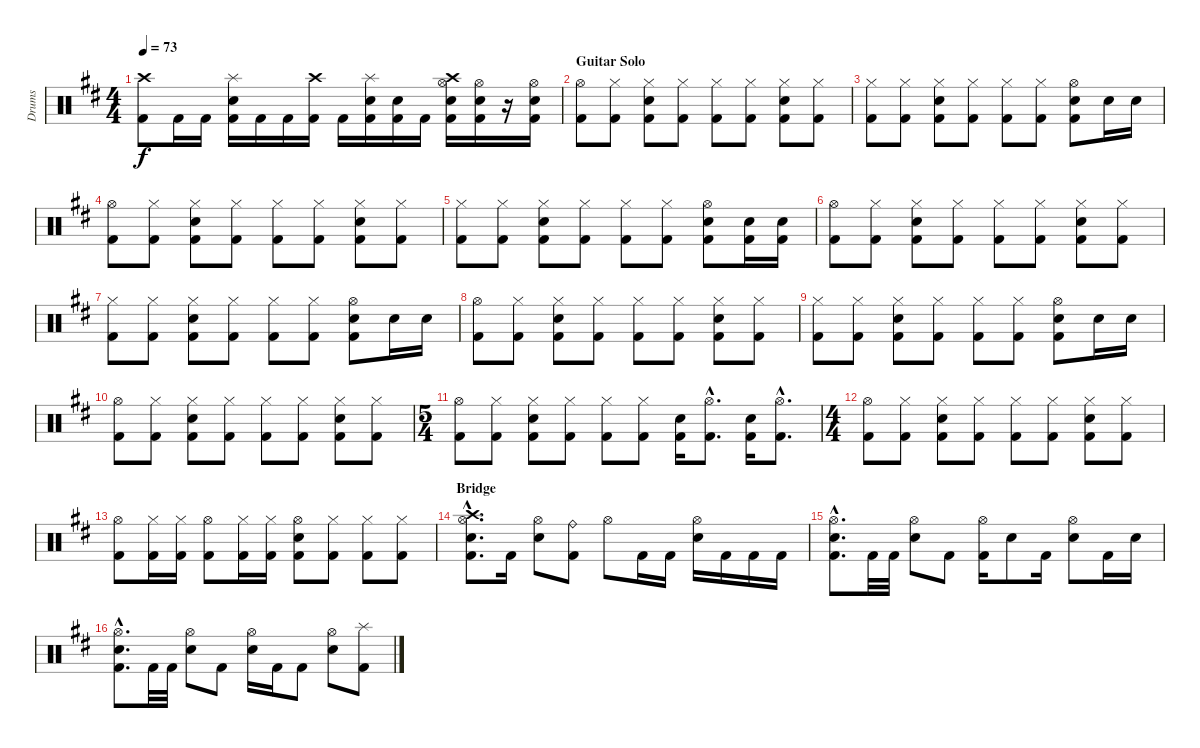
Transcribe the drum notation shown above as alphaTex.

\track ("Drums" "Drums") {instrument percussion}
\staff {score}
\articulation defaults
\ts (4 4)
\tempo 73
\clef neutral
\ks d
("Kick (hit) 2" "Crash high (hit)").8{dy f} "Kick (hit) 2".16 "Kick (hit) 2".16 ("Kick (hit) 2" "Electric Snare (hit)" "Splash (hit)").16 "Kick (hit) 2".16 "Kick (hit) 2".16 ("Kick (hit) 2" "Crash high (hit)").16 "Kick (hit) 2".16 ("Kick (hit) 2" "Electric Snare (hit)" "Splash (hit)").16 ("Kick (hit) 2" "Electric Snare (hit)").16 "Kick (hit) 2".16 ("Kick (hit) 2" "Electric Snare (hit)" "Hi-Hat (open)" "Crash high (hit)").16 ("Kick (hit) 2" "Electric Snare (hit)" "Hi-Hat (open)").16 r.16 ("Kick (hit) 2" "Electric Snare (hit)" "Hi-Hat (open)").16 |
\section ("" "Guitar Solo")
("Kick (hit) 2" "Hi-Hat (open)").8 ("Kick (hit) 2" "Hi-Hat (closed)").8 ("Kick (hit) 2" "Hi-Hat (closed)" "Electric Snare (hit)").8 ("Kick (hit) 2" "Hi-Hat (closed)").8 ("Kick (hit) 2" "Hi-Hat (closed)").8 ("Kick (hit) 2" "Hi-Hat (closed)").8 ("Kick (hit) 2" "Hi-Hat (closed)" "Electric Snare (hit)").8 ("Kick (hit) 2" "Hi-Hat (closed)").8 |
("Kick (hit) 2" "Hi-Hat (closed)").8 ("Kick (hit) 2" "Hi-Hat (closed)").8 ("Kick (hit) 2" "Hi-Hat (closed)" "Electric Snare (hit)").8 ("Kick (hit) 2" "Hi-Hat (closed)").8 ("Kick (hit) 2" "Hi-Hat (closed)").8 ("Kick (hit) 2" "Hi-Hat (closed)").8 ("Kick (hit) 2" "Hi-Hat (open)" "Electric Snare (hit)").8 "Electric Snare (hit)".16 "Electric Snare (hit)".16 |
("Kick (hit) 2" "Hi-Hat (open)").8 ("Kick (hit) 2" "Hi-Hat (closed)").8 ("Kick (hit) 2" "Hi-Hat (closed)" "Electric Snare (hit)").8 ("Kick (hit) 2" "Hi-Hat (closed)").8 ("Kick (hit) 2" "Hi-Hat (closed)").8 ("Kick (hit) 2" "Hi-Hat (closed)").8 ("Kick (hit) 2" "Hi-Hat (closed)" "Electric Snare (hit)").8 ("Kick (hit) 2" "Hi-Hat (closed)").8 |
("Kick (hit) 2" "Hi-Hat (closed)").8 ("Kick (hit) 2" "Hi-Hat (closed)").8 ("Kick (hit) 2" "Hi-Hat (closed)" "Electric Snare (hit)").8 ("Kick (hit) 2" "Hi-Hat (closed)").8 ("Kick (hit) 2" "Hi-Hat (closed)").8 ("Kick (hit) 2" "Hi-Hat (closed)").8 ("Kick (hit) 2" "Hi-Hat (open)" "Electric Snare (hit)").8 ("Kick (hit) 2" "Electric Snare (hit)").16 ("Kick (hit) 2" "Electric Snare (hit)").16 |
("Kick (hit) 2" "Hi-Hat (open)").8 ("Kick (hit) 2" "Hi-Hat (closed)").8 ("Kick (hit) 2" "Hi-Hat (closed)" "Electric Snare (hit)").8 ("Kick (hit) 2" "Hi-Hat (closed)").8 ("Kick (hit) 2" "Hi-Hat (closed)").8 ("Kick (hit) 2" "Hi-Hat (closed)").8 ("Kick (hit) 2" "Hi-Hat (closed)" "Electric Snare (hit)").8 ("Kick (hit) 2" "Hi-Hat (closed)").8 |
("Kick (hit) 2" "Hi-Hat (closed)").8 ("Kick (hit) 2" "Hi-Hat (closed)").8 ("Kick (hit) 2" "Hi-Hat (closed)" "Electric Snare (hit)").8 ("Kick (hit) 2" "Hi-Hat (closed)").8 ("Kick (hit) 2" "Hi-Hat (closed)").8 ("Kick (hit) 2" "Hi-Hat (closed)").8 ("Kick (hit) 2" "Hi-Hat (open)" "Electric Snare (hit)").8 "Electric Snare (hit)".16 "Electric Snare (hit)".16 |
("Kick (hit) 2" "Hi-Hat (open)").8 ("Kick (hit) 2" "Hi-Hat (closed)").8 ("Kick (hit) 2" "Hi-Hat (closed)" "Electric Snare (hit)").8 ("Kick (hit) 2" "Hi-Hat (closed)").8 ("Kick (hit) 2" "Hi-Hat (closed)").8 ("Kick (hit) 2" "Hi-Hat (closed)").8 ("Kick (hit) 2" "Hi-Hat (closed)" "Electric Snare (hit)").8 ("Kick (hit) 2" "Hi-Hat (closed)").8 |
("Kick (hit) 2" "Hi-Hat (closed)").8 ("Kick (hit) 2" "Hi-Hat (closed)").8 ("Kick (hit) 2" "Hi-Hat (closed)" "Electric Snare (hit)").8 ("Kick (hit) 2" "Hi-Hat (closed)").8 ("Kick (hit) 2" "Hi-Hat (closed)").8 ("Kick (hit) 2" "Hi-Hat (closed)").8 ("Kick (hit) 2" "Hi-Hat (open)" "Electric Snare (hit)").8 "Electric Snare (hit)".16 "Electric Snare (hit)".16 |
("Kick (hit) 2" "Hi-Hat (open)").8 ("Kick (hit) 2" "Hi-Hat (closed)").8 ("Kick (hit) 2" "Hi-Hat (closed)" "Electric Snare (hit)").8 ("Kick (hit) 2" "Hi-Hat (closed)").8 ("Kick (hit) 2" "Hi-Hat (closed)").8 ("Kick (hit) 2" "Hi-Hat (closed)").8 ("Kick (hit) 2" "Hi-Hat (closed)" "Electric Snare (hit)").8 ("Kick (hit) 2" "Hi-Hat (closed)").8 |
\ts (5 4)
("Kick (hit) 2" "Hi-Hat (open)").8 ("Kick (hit) 2" "Hi-Hat (closed)").8 ("Kick (hit) 2" "Hi-Hat (closed)" "Electric Snare (hit)").8 ("Kick (hit) 2" "Hi-Hat (closed)").8 ("Kick (hit) 2" "Hi-Hat (closed)").8 ("Kick (hit) 2" "Hi-Hat (closed)").8 ("Kick (hit) 2" "Electric Snare (hit)").16 ("Kick (hit) 2"{hac} "Hi-Hat (open)"{hac}).8{d} ("Kick (hit) 2" "Electric Snare (hit)").16 ("Kick (hit) 2"{hac} "Hi-Hat (open)"{hac}).8{d} |
\ts (4 4)
("Kick (hit) 2" "Hi-Hat (open)").8 ("Kick (hit) 2" "Hi-Hat (closed)").8 ("Kick (hit) 2" "Hi-Hat (closed)" "Electric Snare (hit)").8 ("Kick (hit) 2" "Hi-Hat (closed)").8 ("Kick (hit) 2" "Hi-Hat (closed)").8 ("Kick (hit) 2" "Hi-Hat (closed)").8 ("Kick (hit) 2" "Hi-Hat (closed)" "Electric Snare (hit)").8 ("Kick (hit) 2" "Hi-Hat (closed)").8 |
("Kick (hit) 2" "Hi-Hat (open)").8 ("Kick (hit) 2" "Hi-Hat (closed)").16 ("Kick (hit) 2" "Hi-Hat (closed)").16 ("Kick (hit) 2" "Hi-Hat (open)").8 ("Kick (hit) 2" "Hi-Hat (closed)").16 ("Kick (hit) 2" "Hi-Hat (closed)").16 ("Kick (hit) 2" "Hi-Hat (open)" "Electric Snare (hit)").8 ("Kick (hit) 2" "Hi-Hat (closed)").8 ("Kick (hit) 2" "Hi-Hat (closed)").8 ("Kick (hit) 2" "Hi-Hat (closed)").8 |
\section ("" "Bridge")
("Kick (hit) 2"{hac} "Electric Snare (hit)"{hac} "Hi-Hat (open)"{hac} "Crash high (hit)"{hac}).8{d} "Kick (hit) 2".16 ("Electric Snare (hit)" "Hi-Hat (open)").8 ("Kick (hit) 2" "Ride (bell)").8 "Hi-Hat (open)".8 "Kick (hit) 2".16 "Kick (hit) 2".16 ("Electric Snare (hit)" "Hi-Hat (open)").16 "Kick (hit) 2".16 "Kick (hit) 2".16 "Kick (hit) 2".16 |
("Kick (hit) 2" "Electric Snare (hit)"{hac} "Hi-Hat (open)"{hac}).8{d} "Kick (hit) 2".32 "Kick (hit) 2".32 ("Electric Snare (hit)" "Hi-Hat (open)").8 "Kick (hit) 2".8 ("Kick (hit) 2" "Hi-Hat (open)").16 "Electric Snare (hit)".8 "Kick (hit) 2".16 ("Electric Snare (hit)" "Hi-Hat (open)").8 "Kick (hit) 2".16 "Electric Snare (hit)".16 |
("Kick (hit) 2" "Electric Snare (hit)"{hac} "Hi-Hat (open)"{hac}).8{d} "Kick (hit) 2".32 "Kick (hit) 2".32 ("Electric Snare (hit)" "Hi-Hat (open)").8 "Kick (hit) 2".8 ("Electric Snare (hit)" "Hi-Hat (open)").16 "Kick (hit) 2".16 "Kick (hit) 2".8 ("Electric Snare (hit)" "Hi-Hat (open)").8 ("Kick (hit) 2" "Splash (hit)").8
